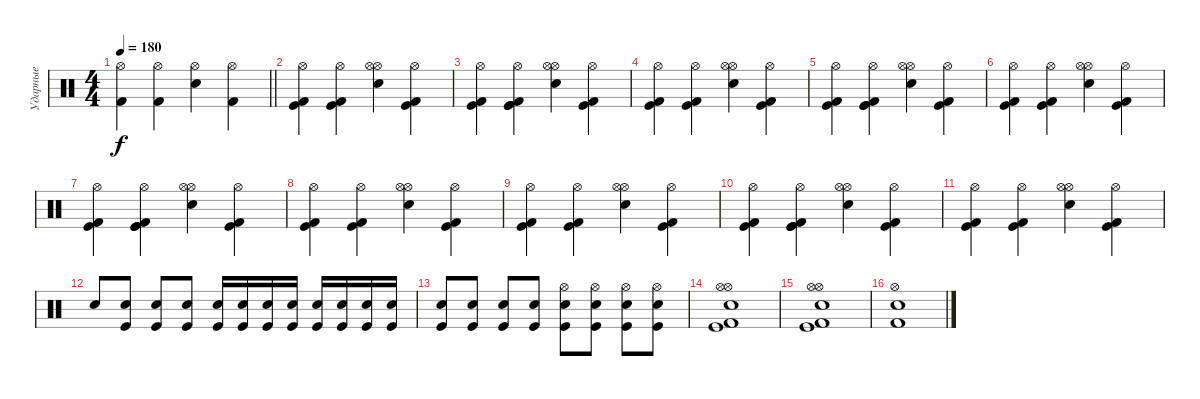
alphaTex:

\track ("Ударные" "Ударные") {instrument percussion}
\staff {score}
\articulation defaults
\ts (4 4)
\tempo 180
\clef neutral
\barLineRight lightlight
\ks c
("Hi-Hat (open)" "Kick (hit) 2").4{dy f} ("Hi-Hat (open)" "Kick (hit) 2").4 ("Electric Snare (hit)" "Hi-Hat (open)").4 ("Hi-Hat (open)" "Kick (hit) 2").4 |
("Hi-Hat (open)" "Kick (hit) 2" "Kick (hit)").4 ("Hi-Hat (open)" "Kick (hit) 2" "Kick (hit)").4 ("Electric Snare (hit)" "Hi-Hat (open)" "Hi-Hat (open)").4 ("Hi-Hat (open)" "Kick (hit) 2" "Kick (hit)").4 |
("Hi-Hat (open)" "Kick (hit) 2" "Kick (hit)").4 ("Hi-Hat (open)" "Kick (hit) 2" "Kick (hit)" "Kick (hit)").4 ("Electric Snare (hit)" "Hi-Hat (open)" "Hi-Hat (open)").4 ("Hi-Hat (open)" "Kick (hit) 2" "Kick (hit)").4 |
("Hi-Hat (open)" "Kick (hit) 2" "Kick (hit)").4 ("Hi-Hat (open)" "Kick (hit) 2" "Kick (hit)").4 ("Electric Snare (hit)" "Hi-Hat (open)" "Hi-Hat (open)").4 ("Hi-Hat (open)" "Kick (hit) 2" "Kick (hit)").4 |
("Hi-Hat (open)" "Kick (hit) 2" "Kick (hit)").4 ("Hi-Hat (open)" "Kick (hit) 2" "Kick (hit)" "Kick (hit)").4 ("Electric Snare (hit)" "Hi-Hat (open)" "Hi-Hat (open)").4 ("Hi-Hat (open)" "Kick (hit) 2" "Kick (hit)").4 |
("Hi-Hat (open)" "Kick (hit) 2" "Kick (hit)").4 ("Hi-Hat (open)" "Kick (hit) 2" "Kick (hit)").4 ("Electric Snare (hit)" "Hi-Hat (open)" "Hi-Hat (open)").4 ("Hi-Hat (open)" "Kick (hit) 2" "Kick (hit)").4 |
("Hi-Hat (open)" "Kick (hit) 2" "Kick (hit)").4 ("Hi-Hat (open)" "Kick (hit) 2" "Kick (hit)" "Kick (hit)").4 ("Electric Snare (hit)" "Hi-Hat (open)" "Hi-Hat (open)").4 ("Hi-Hat (open)" "Kick (hit) 2" "Kick (hit)").4 |
("Hi-Hat (open)" "Kick (hit) 2" "Kick (hit)").4 ("Hi-Hat (open)" "Kick (hit) 2" "Kick (hit)").4 ("Electric Snare (hit)" "Hi-Hat (open)" "Hi-Hat (open)").4 ("Hi-Hat (open)" "Kick (hit) 2" "Kick (hit)").4 |
("Hi-Hat (open)" "Kick (hit) 2" "Kick (hit)").4 ("Hi-Hat (open)" "Kick (hit) 2" "Kick (hit)").4 ("Electric Snare (hit)" "Hi-Hat (open)" "Hi-Hat (open)").4 ("Hi-Hat (open)" "Kick (hit) 2" "Kick (hit)").4 |
("Hi-Hat (open)" "Kick (hit) 2" "Kick (hit)").4 ("Hi-Hat (open)" "Kick (hit) 2" "Kick (hit)" "Kick (hit)").4 ("Electric Snare (hit)" "Hi-Hat (open)" "Hi-Hat (open)").4 ("Hi-Hat (open)" "Kick (hit) 2" "Kick (hit)").4 |
("Hi-Hat (open)" "Kick (hit) 2" "Kick (hit)").4 ("Hi-Hat (open)" "Kick (hit) 2" "Kick (hit)").4 ("Electric Snare (hit)" "Hi-Hat (open)" "Hi-Hat (open)").4 ("Hi-Hat (open)" "Kick (hit) 2" "Kick (hit)").4 |
"Snare (hit) 2".8 ("Kick (hit)" "Snare (hit) 2").8 ("Snare (hit) 2" "Kick (hit)").8 ("Kick (hit)" "Snare (hit) 2").8 ("Snare (hit) 2" "Kick (hit)").16 ("Kick (hit)" "Snare (hit) 2").16 ("Snare (hit) 2" "Kick (hit)").16 ("Kick (hit)" "Snare (hit) 2").16 ("Snare (hit) 2" "Kick (hit)").16 ("Kick (hit)" "Snare (hit) 2").16 ("Snare (hit) 2" "Kick (hit)").16 ("Kick (hit)" "Snare (hit) 2").16 |
("Snare (hit) 2" "Kick (hit)").8 ("Kick (hit)" "Snare (hit) 2").8 ("Snare (hit) 2" "Kick (hit)").8 ("Kick (hit)" "Snare (hit) 2").8 ("Snare (hit) 2" "Kick (hit)" "Hi-Hat (open)").8 ("Hi-Hat (open)" "Kick (hit)" "Snare (hit) 2").8 ("Snare (hit) 2" "Kick (hit)" "Hi-Hat (open)").8 ("Hi-Hat (open)" "Kick (hit)" "Snare (hit) 2").8 |
("Hi-Hat (open)" "Kick (hit) 2" "Snare (hit) 2" "Hi-Hat (open)" "Kick (hit)").1 |
("Hi-Hat (open)" "Kick (hit) 2" "Snare (hit) 2" "Kick (hit)" "Hi-Hat (open)").1 |
("Electric Snare (hit)" "Kick (hit) 2" "Hi-Hat (open)").1
